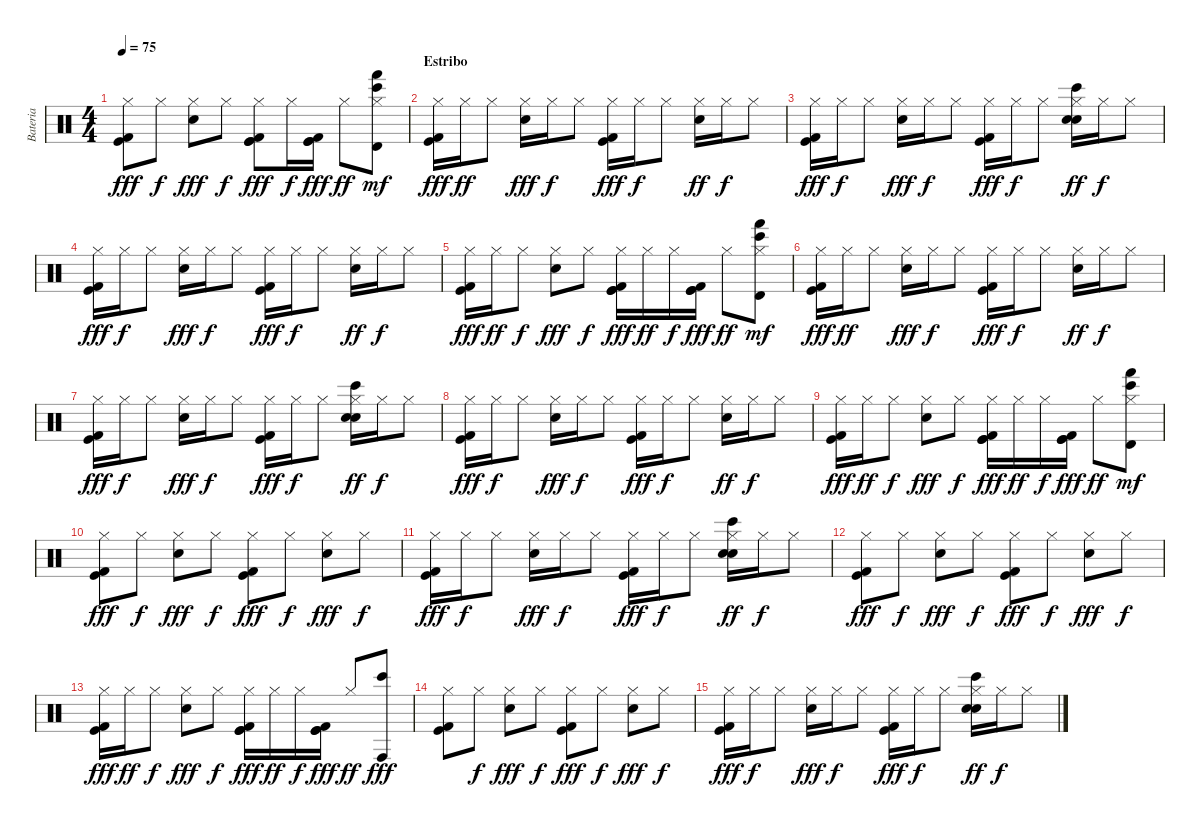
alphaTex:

\track ("Bateria" "Bateria") {instrument percussion}
\staff {score}
\articulation defaults
\ts (4 4)
\tempo 75
\clef neutral
\ks c
("Hi-Hat (closed)" "Kick (hit) 2" "Kick (hit)").8{dy fff} "Hi-Hat (closed)".8{dy f} ("Hi-Hat (closed)" "Snare (hit) 2").8{dy fff} "Hi-Hat (closed)".8{dy f} ("Hi-Hat (closed)" "Kick (hit) 2" "Kick (hit)" "Kick (hit)").8{dy fff} "Hi-Hat (closed)".16{dy f} ("Kick (hit) 2" "Kick (hit)" "Kick (hit)").16{dy fff} "Hi-Hat (closed)".8{dy ff} ("Hi-Hat (closed)" "Hand (hit)" "Bongo High (hit)" "Timbale high (hit)").8{dy mf} |
\section ("" "Estribo")
("Hi-Hat (closed)" "Kick (hit) 2" "Kick (hit)").16{dy fff} "Hi-Hat (closed)".16{dy ff} "Hi-Hat (closed)".8 ("Hi-Hat (closed)" "Snare (hit) 2").16{dy fff} "Hi-Hat (closed)".16{dy f} "Hi-Hat (closed)".8 ("Hi-Hat (closed)" "Kick (hit) 2" "Kick (hit)").16{dy fff} "Hi-Hat (closed)".16{dy f} "Hi-Hat (closed)".8 ("Hi-Hat (closed)" "Snare (hit) 2").16{dy ff} "Hi-Hat (closed)".16{dy f} "Hi-Hat (closed)".8 |
("Hi-Hat (closed)" "Kick (hit) 2" "Kick (hit)").16{dy fff} "Hi-Hat (closed)".16{dy f} "Hi-Hat (closed)".8 ("Hi-Hat (closed)" "Snare (hit) 2").16{dy fff} "Hi-Hat (closed)".16{dy f} "Hi-Hat (closed)".8 ("Hi-Hat (closed)" "Kick (hit) 2" "Kick (hit)").16{dy fff} "Hi-Hat (closed)".16{dy f} "Hi-Hat (closed)".8 ("Hi-Hat (closed)" "Bongo High (hit)" "Snare (hit) 2" "Electric Snare (hit)").16{dy ff} "Hi-Hat (closed)".16{dy f} "Hi-Hat (closed)".8 |
("Hi-Hat (closed)" "Kick (hit) 2" "Kick (hit)").16{dy fff} "Hi-Hat (closed)".16{dy f} "Hi-Hat (closed)".8 ("Hi-Hat (closed)" "Snare (hit) 2").16{dy fff} "Hi-Hat (closed)".16{dy f} "Hi-Hat (closed)".8 ("Hi-Hat (closed)" "Kick (hit) 2" "Kick (hit)").16{dy fff} "Hi-Hat (closed)".16{dy f} "Hi-Hat (closed)".8 ("Hi-Hat (closed)" "Snare (hit) 2").16{dy ff} "Hi-Hat (closed)".16{dy f} "Hi-Hat (closed)".8 |
("Hi-Hat (closed)" "Kick (hit) 2" "Kick (hit)").16{dy fff} "Hi-Hat (closed)".16{dy ff} "Hi-Hat (closed)".8{dy f} ("Hi-Hat (closed)" "Snare (hit) 2").8{dy fff} "Hi-Hat (closed)".8{dy f} ("Hi-Hat (closed)" "Kick (hit) 2" "Kick (hit)" "Kick (hit)").16{dy fff} "Hi-Hat (closed)".16{dy ff} "Hi-Hat (closed)".16{dy f} ("Kick (hit) 2" "Kick (hit)" "Kick (hit)").16{dy fff} "Hi-Hat (closed)".8{dy ff} ("Hi-Hat (closed)" "Hand (hit)" "Bongo High (hit)" "Timbale high (hit)").8{dy mf} |
("Hi-Hat (closed)" "Kick (hit) 2" "Kick (hit)").16{dy fff} "Hi-Hat (closed)".16{dy ff} "Hi-Hat (closed)".8 ("Hi-Hat (closed)" "Snare (hit) 2").16{dy fff} "Hi-Hat (closed)".16{dy f} "Hi-Hat (closed)".8 ("Hi-Hat (closed)" "Kick (hit) 2" "Kick (hit)").16{dy fff} "Hi-Hat (closed)".16{dy f} "Hi-Hat (closed)".8 ("Hi-Hat (closed)" "Snare (hit) 2").16{dy ff} "Hi-Hat (closed)".16{dy f} "Hi-Hat (closed)".8 |
("Hi-Hat (closed)" "Kick (hit) 2" "Kick (hit)").16{dy fff} "Hi-Hat (closed)".16{dy f} "Hi-Hat (closed)".8 ("Hi-Hat (closed)" "Snare (hit) 2").16{dy fff} "Hi-Hat (closed)".16{dy f} "Hi-Hat (closed)".8 ("Hi-Hat (closed)" "Kick (hit) 2" "Kick (hit)").16{dy fff} "Hi-Hat (closed)".16{dy f} "Hi-Hat (closed)".8 ("Hi-Hat (closed)" "Bongo High (hit)" "Snare (hit) 2" "Electric Snare (hit)").16{dy ff} "Hi-Hat (closed)".16{dy f} "Hi-Hat (closed)".8 |
("Hi-Hat (closed)" "Kick (hit) 2" "Kick (hit)").16{dy fff} "Hi-Hat (closed)".16{dy f} "Hi-Hat (closed)".8 ("Hi-Hat (closed)" "Snare (hit) 2").16{dy fff} "Hi-Hat (closed)".16{dy f} "Hi-Hat (closed)".8 ("Hi-Hat (closed)" "Kick (hit) 2" "Kick (hit)").16{dy fff} "Hi-Hat (closed)".16{dy f} "Hi-Hat (closed)".8 ("Hi-Hat (closed)" "Snare (hit) 2").16{dy ff} "Hi-Hat (closed)".16{dy f} "Hi-Hat (closed)".8 |
("Hi-Hat (closed)" "Kick (hit) 2" "Kick (hit)").16{dy fff} "Hi-Hat (closed)".16{dy ff} "Hi-Hat (closed)".8{dy f} ("Hi-Hat (closed)" "Snare (hit) 2").8{dy fff} "Hi-Hat (closed)".8{dy f} ("Hi-Hat (closed)" "Kick (hit) 2" "Kick (hit)" "Kick (hit)").16{dy fff} "Hi-Hat (closed)".16{dy ff} "Hi-Hat (closed)".16{dy f} ("Kick (hit) 2" "Kick (hit)" "Kick (hit)").16{dy fff} "Hi-Hat (closed)".8{dy ff} ("Hi-Hat (closed)" "Hand (hit)" "Bongo High (hit)" "Timbale high (hit)").8{dy mf} |
("Hi-Hat (closed)" "Kick (hit) 2" "Kick (hit)").8{dy fff volume 8} "Hi-Hat (closed)".8{dy f} ("Hi-Hat (closed)" "Snare (hit) 2").8{dy fff} "Hi-Hat (closed)".8{dy f} ("Hi-Hat (closed)" "Kick (hit) 2" "Kick (hit)").8{dy fff} "Hi-Hat (closed)".8{dy f} ("Hi-Hat (closed)" "Snare (hit) 2").8{dy fff} "Hi-Hat (closed)".8{dy f} |
("Hi-Hat (closed)" "Kick (hit) 2" "Kick (hit)").16{dy fff} "Hi-Hat (closed)".16{dy f} "Hi-Hat (closed)".8 ("Hi-Hat (closed)" "Snare (hit) 2").16{dy fff} "Hi-Hat (closed)".16{dy f} "Hi-Hat (closed)".8 ("Hi-Hat (closed)" "Kick (hit) 2" "Kick (hit)").16{dy fff} "Hi-Hat (closed)".16{dy f} "Hi-Hat (closed)".8 ("Hi-Hat (closed)" "Bongo High (hit)" "Snare (hit) 2" "Electric Snare (hit)").16{dy ff} "Hi-Hat (closed)".16{dy f} "Hi-Hat (closed)".8 |
("Hi-Hat (closed)" "Kick (hit) 2" "Kick (hit)").8{dy fff volume 4} "Hi-Hat (closed)".8{dy f} ("Hi-Hat (closed)" "Snare (hit) 2").8{dy fff} "Hi-Hat (closed)".8{dy f} ("Hi-Hat (closed)" "Kick (hit) 2" "Kick (hit)").8{dy fff} "Hi-Hat (closed)".8{dy f} ("Hi-Hat (closed)" "Snare (hit) 2").8{dy fff} "Hi-Hat (closed)".8{dy f} |
("Hi-Hat (closed)" "Kick (hit) 2" "Kick (hit)").16{dy fff} "Hi-Hat (closed)".16{dy ff} "Hi-Hat (closed)".8{dy f} ("Hi-Hat (closed)" "Snare (hit) 2").8{dy fff} "Hi-Hat (closed)".8{dy f} ("Hi-Hat (closed)" "Kick (hit) 2" "Kick (hit)" "Kick (hit)").16{dy fff} "Hi-Hat (closed)".16{dy ff} "Hi-Hat (closed)".16{dy f} ("Kick (hit) 2" "Kick (hit)" "Kick (hit)").16{dy fff} "Hi-Hat (closed)".8{dy ff} ("Bongo High (hit)" "Conga high (hit)").8{dy fff} |
("Hi-Hat (closed)" "Kick (hit) 2" "Kick (hit)").8{volume 0} "Hi-Hat (closed)".8{dy f} ("Hi-Hat (closed)" "Snare (hit) 2").8{dy fff} "Hi-Hat (closed)".8{dy f} ("Hi-Hat (closed)" "Kick (hit) 2" "Kick (hit)").8{dy fff} "Hi-Hat (closed)".8{dy f} ("Hi-Hat (closed)" "Snare (hit) 2").8{dy fff} "Hi-Hat (closed)".8{dy f} |
("Hi-Hat (closed)" "Kick (hit) 2" "Kick (hit)").16{dy fff} "Hi-Hat (closed)".16{dy f} "Hi-Hat (closed)".8 ("Hi-Hat (closed)" "Snare (hit) 2").16{dy fff} "Hi-Hat (closed)".16{dy f} "Hi-Hat (closed)".8 ("Hi-Hat (closed)" "Kick (hit) 2" "Kick (hit)").16{dy fff} "Hi-Hat (closed)".16{dy f} "Hi-Hat (closed)".8 ("Hi-Hat (closed)" "Bongo High (hit)" "Snare (hit) 2" "Electric Snare (hit)").16{dy ff} "Hi-Hat (closed)".16{dy f} "Hi-Hat (closed)".8
